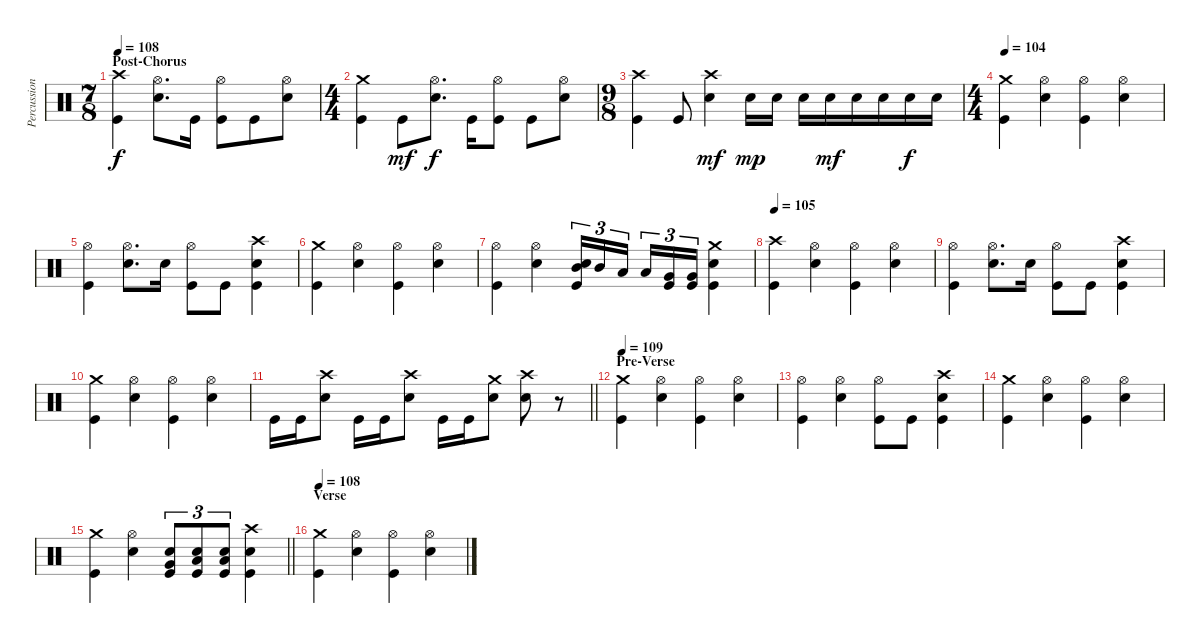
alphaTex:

\track ("Percussions" "Percussion") {instrument percussion}
\staff {score}
\articulation defaults
\ts (7 8)
\section ("" "Post-Chorus")
\tempo 108
\clef neutral
\ks c
("Crash high (hit)" "Kick (hit)").4{dy f} ("Hi-Hat (open)" "Electric Snare (hit)").8{d} "Kick (hit)".16 ("Hi-Hat (open)" "Kick (hit)").8 "Kick (hit)".8 ("Hi-Hat (open)" "Electric Snare (hit)").8 |
\ts (4 4)
("Crash medium (hit)" "Kick (hit)").4 "Kick (hit)".8{dy mf} ("Hi-Hat (open)" "Electric Snare (hit)").8{d dy f} "Kick (hit)".16 ("Hi-Hat (open)" "Kick (hit)").8 "Kick (hit)".8 ("Hi-Hat (open)" "Electric Snare (hit)").8 |
\ts (9 8)
("Crash high (hit)" "Kick (hit)").4 "Kick (hit)".8 ("Crash high (hit)" "Electric Snare (hit)").4{dy mf} "Electric Snare (hit)".16{dy mp} "Electric Snare (hit)".16 "Electric Snare (hit)".16 "Electric Snare (hit)".16{dy mf} "Electric Snare (hit)".16 "Electric Snare (hit)".16 "Electric Snare (hit)".16{dy f} "Electric Snare (hit)".16 |
\ts (4 4)
\tempo 104
("Crash medium (hit)" "Kick (hit)").4 ("Hi-Hat (open)" "Electric Snare (hit)").4 ("Hi-Hat (open)" "Kick (hit)").4 ("Hi-Hat (open)" "Electric Snare (hit)").4 |
("Hi-Hat (open)" "Kick (hit)").4 ("Hi-Hat (open)" "Electric Snare (hit)").8{d} "Electric Snare (hit)".16 ("Hi-Hat (open)" "Kick (hit)").8 "Kick (hit)".8 ("Crash high (hit)" "Electric Snare (hit)" "Kick (hit)").4 |
("Crash medium (hit)" "Kick (hit)").4 ("Hi-Hat (open)" "Electric Snare (hit)").4 ("Hi-Hat (open)" "Kick (hit)").4 ("Hi-Hat (open)" "Electric Snare (hit)").4 |
("Hi-Hat (open)" "Kick (hit)").4 ("Hi-Hat (open)" "Electric Snare (hit)").4 ("Electric Snare (hit)" "Mid Tom (hit)" "Kick (hit)").16{tu (3 2)} "Mid Tom (hit)".16{tu (3 2)} "Low Tom (hit)".16{tu (3 2) beam splitsecondary} "Low Tom (hit)".16{tu (3 2)} ("Very Low Tom (hit)" "Kick (hit)").16{tu (3 2)} ("Very Low Tom (hit)" "Kick (hit)").16{tu (3 2)} ("Crash medium (hit)" "Electric Snare (hit)" "Kick (hit)").4 |
\tempo 105
("Crash high (hit)" "Kick (hit)").4 ("Hi-Hat (open)" "Electric Snare (hit)").4 ("Hi-Hat (open)" "Kick (hit)").4 ("Hi-Hat (open)" "Electric Snare (hit)").4 |
("Hi-Hat (open)" "Kick (hit)").4 ("Hi-Hat (open)" "Electric Snare (hit)").8{d} "Electric Snare (hit)".16 ("Hi-Hat (open)" "Kick (hit)").8 "Kick (hit)".8 ("Crash high (hit)" "Electric Snare (hit)" "Kick (hit)").4 |
("Crash medium (hit)" "Kick (hit)").4 ("Hi-Hat (open)" "Electric Snare (hit)").4 ("Hi-Hat (open)" "Kick (hit)").4 ("Hi-Hat (open)" "Electric Snare (hit)").4 |
\barLineRight lightlight "Kick (hit)".16 "Kick (hit)".16
("Crash high (hit)" "Electric Snare (hit)").8 "Kick (hit)".16 "Kick (hit)".16 ("Crash high (hit)" "Electric Snare (hit)").8 "Kick (hit)".16 "Kick (hit)".16 ("Crash medium (hit)" "Electric Snare (hit)").8 ("Crash high (hit)" "Electric Snare (hit)").8 r.8 |
\section ("" "Pre-Verse")
\tempo 109
("Crash medium (hit)" "Kick (hit)").4 ("Hi-Hat (open)" "Electric Snare (hit)").4 ("Hi-Hat (open)" "Kick (hit)").4 ("Hi-Hat (open)" "Electric Snare (hit)").4 |
("Hi-Hat (open)" "Kick (hit)").4 ("Hi-Hat (open)" "Electric Snare (hit)").4 ("Hi-Hat (open)" "Kick (hit)").8 "Kick (hit)".8 ("Crash high (hit)" "Electric Snare (hit)" "Kick (hit)").4 |
("Crash medium (hit)" "Kick (hit)").4 ("Hi-Hat (open)" "Electric Snare (hit)").4 ("Hi-Hat (open)" "Kick (hit)").4 ("Hi-Hat (open)" "Electric Snare (hit)").4 |
\barLineRight lightlight
("Crash medium (hit)" "Kick (hit)").4 ("Hi-Hat (open)" "Electric Snare (hit)").4 ("Electric Snare (hit)" "Very Low Tom (hit)" "Kick (hit)").8{tu (3 2)} ("Electric Snare (hit)" "Low Floor Tom (hit)" "Kick (hit)").8{tu (3 2)} ("Electric Snare (hit)" "Low Floor Tom (hit)" "Kick (hit)").8{tu (3 2)} ("Crash high (hit)" "Electric Snare (hit)" "Kick (hit)").4 |
\section ("" "Verse")
\tempo 108
("Crash medium (hit)" "Kick (hit)").4 ("Hi-Hat (open)" "Electric Snare (hit)").4 ("Hi-Hat (open)" "Kick (hit)").4 ("Hi-Hat (open)" "Electric Snare (hit)").4
